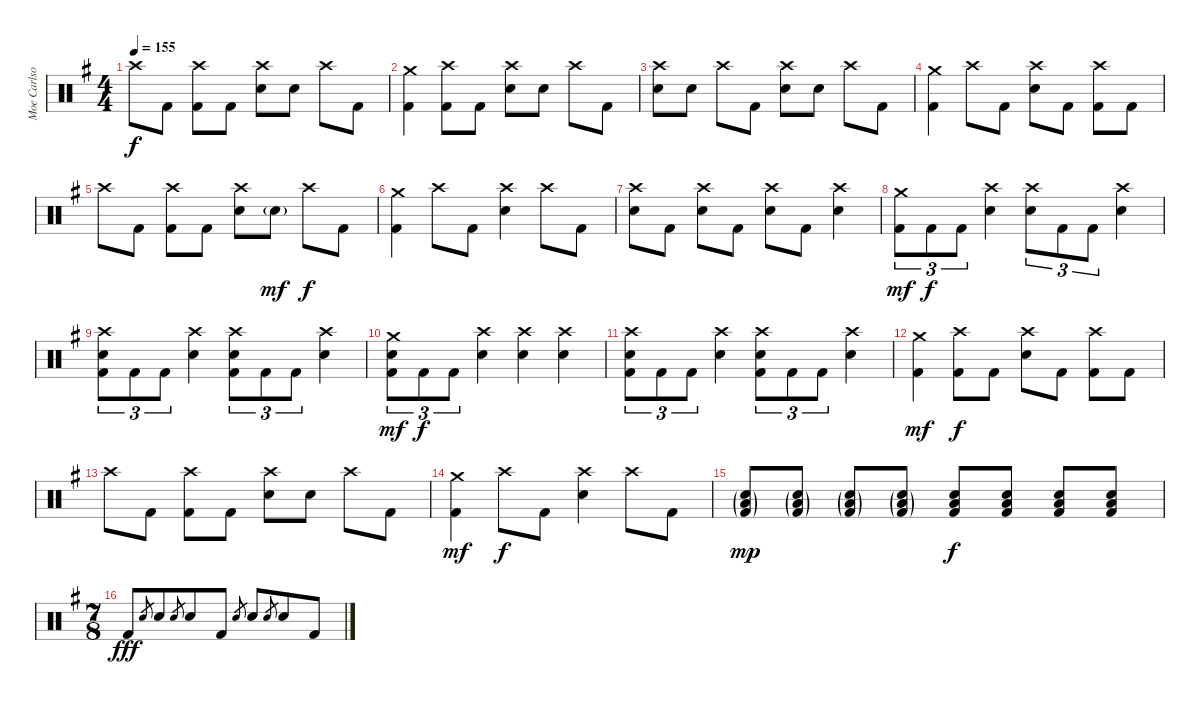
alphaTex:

\track ("Moe Carlson" "Moe Carlso") {instrument percussion}
\staff {score}
\articulation defaults
\ts (4 4)
\tempo 155
\clef neutral
\ks g "Crash high (hit)".8{dy f} "Kick (hit) 2".8
("Crash high (hit)" "Kick (hit) 2").8 "Kick (hit) 2".8 ("Crash high (hit)" "Electric Snare (hit)").8 "Electric Snare (hit)".8 "Crash high (hit)".8 "Kick (hit) 2".8 |
("Crash medium (hit)" "Kick (hit) 2").4 ("Crash high (hit)" "Kick (hit) 2").8 "Kick (hit) 2".8 ("Crash high (hit)" "Electric Snare (hit)").8 "Electric Snare (hit)".8 "Crash high (hit)".8 "Kick (hit) 2".8 |
("Crash high (hit)" "Electric Snare (hit)").8 "Electric Snare (hit)".8 "Crash high (hit)".8 "Kick (hit) 2".8 ("Crash high (hit)" "Electric Snare (hit)").8 "Electric Snare (hit)".8 "Crash high (hit)".8 "Kick (hit) 2".8 |
("Crash medium (hit)" "Kick (hit) 2").4 "Crash high (hit)".8 "Kick (hit) 2".8 ("Crash high (hit)" "Electric Snare (hit)").8 "Kick (hit) 2".8 ("Crash high (hit)" "Kick (hit) 2").8 "Kick (hit) 2".8 |
"Crash high (hit)".8 "Kick (hit) 2".8 ("Crash high (hit)" "Kick (hit) 2").8 "Kick (hit) 2".8 ("Crash high (hit)" "Electric Snare (hit)").8 "Electric Snare (hit)"{g}.8{dy mf} "Crash high (hit)".8{dy f} "Kick (hit) 2".8 |
("Crash medium (hit)" "Kick (hit) 2").4 "Crash high (hit)".8 "Kick (hit) 2".8 ("Crash high (hit)" "Electric Snare (hit)").4 "Crash high (hit)".8 "Kick (hit) 2".8 |
("Crash high (hit)" "Electric Snare (hit)").8 "Kick (hit) 2".8 ("Crash high (hit)" "Electric Snare (hit)").8 "Kick (hit) 2".8 ("Crash high (hit)" "Electric Snare (hit)").8 "Kick (hit) 2".8 ("Crash high (hit)" "Electric Snare (hit)").4 |
("Crash medium (hit)" "Kick (hit) 2").8{tu (3 2) dy mf} "Kick (hit) 2".8{tu (3 2) dy f} "Kick (hit) 2".8{tu (3 2)} ("Crash high (hit)" "Electric Snare (hit)").4 ("Crash high (hit)" "Electric Snare (hit)").8{tu (3 2)} "Kick (hit) 2".8{tu (3 2)} "Kick (hit) 2".8{tu (3 2)} ("Crash high (hit)" "Electric Snare (hit)").4 |
("Crash high (hit)" "Electric Snare (hit)" "Kick (hit) 2").8{tu (3 2)} "Kick (hit) 2".8{tu (3 2)} "Kick (hit) 2".8{tu (3 2)} ("Crash high (hit)" "Electric Snare (hit)").4 ("Crash high (hit)" "Electric Snare (hit)" "Kick (hit) 2").8{tu (3 2)} "Kick (hit) 2".8{tu (3 2)} "Kick (hit) 2".8{tu (3 2)} ("Crash high (hit)" "Electric Snare (hit)").4 |
("Crash medium (hit)" "Electric Snare (hit)" "Kick (hit) 2").8{tu (3 2) dy mf} "Kick (hit) 2".8{tu (3 2) dy f} "Kick (hit) 2".8{tu (3 2)} ("Crash high (hit)" "Electric Snare (hit)").4 ("Crash high (hit)" "Electric Snare (hit)").4 ("Crash high (hit)" "Electric Snare (hit)").4 |
("Crash high (hit)" "Electric Snare (hit)" "Kick (hit) 2").8{tu (3 2)} "Kick (hit) 2".8{tu (3 2)} "Kick (hit) 2".8{tu (3 2)} ("Crash high (hit)" "Electric Snare (hit)").4 ("Crash high (hit)" "Electric Snare (hit)" "Kick (hit) 2").8{tu (3 2)} "Kick (hit) 2".8{tu (3 2)} "Kick (hit) 2".8{tu (3 2)} ("Crash high (hit)" "Electric Snare (hit)").4 |
("Crash medium (hit)" "Kick (hit) 2").4{dy mf} ("Crash high (hit)" "Kick (hit) 2").8{dy f} "Kick (hit) 2".8 ("Crash high (hit)" "Electric Snare (hit)").8 "Kick (hit) 2".8 ("Crash high (hit)" "Kick (hit) 2").8 "Kick (hit) 2".8 |
"Crash high (hit)".8 "Kick (hit) 2".8 ("Crash high (hit)" "Kick (hit) 2").8 "Kick (hit) 2".8 ("Crash high (hit)" "Electric Snare (hit)").8 "Electric Snare (hit)".8 "Crash high (hit)".8 "Kick (hit) 2".8 |
("Crash medium (hit)" "Kick (hit) 2").4{dy mf} "Crash high (hit)".8{dy f} "Kick (hit) 2".8 ("Crash high (hit)" "Electric Snare (hit)").4 "Crash high (hit)".8 "Kick (hit) 2".8 |
("Electric Snare (hit)"{g} "Low Floor Tom (hit)"{g} "Kick (hit) 2"{g}).8{dy mp} ("Electric Snare (hit)"{g} "Low Floor Tom (hit)"{g} "Kick (hit) 2"{g}).8 ("Electric Snare (hit)"{g} "Low Floor Tom (hit)"{g} "Kick (hit) 2"{g}).8 ("Electric Snare (hit)"{g} "Low Floor Tom (hit)"{g} "Kick (hit) 2"{g}).8 ("Electric Snare (hit)" "Low Floor Tom (hit)" "Kick (hit) 2").8{dy f} ("Electric Snare (hit)" "Low Floor Tom (hit)" "Kick (hit) 2").8 ("Electric Snare (hit)" "Low Floor Tom (hit)" "Kick (hit) 2").8 ("Electric Snare (hit)" "Low Floor Tom (hit)" "Kick (hit) 2").8 |
\ts (7 8)
"Kick (hit) 2".8{dy fff} "Snare (hit) 2".8{gr} "Snare (hit) 2".8 "Snare (hit) 2".8{gr} "Snare (hit) 2".8 "Kick (hit) 2".8 "Snare (hit) 2".8{gr} "Snare (hit) 2".8 "Snare (hit) 2".8{gr} "Snare (hit) 2".8 "Kick (hit) 2".8
